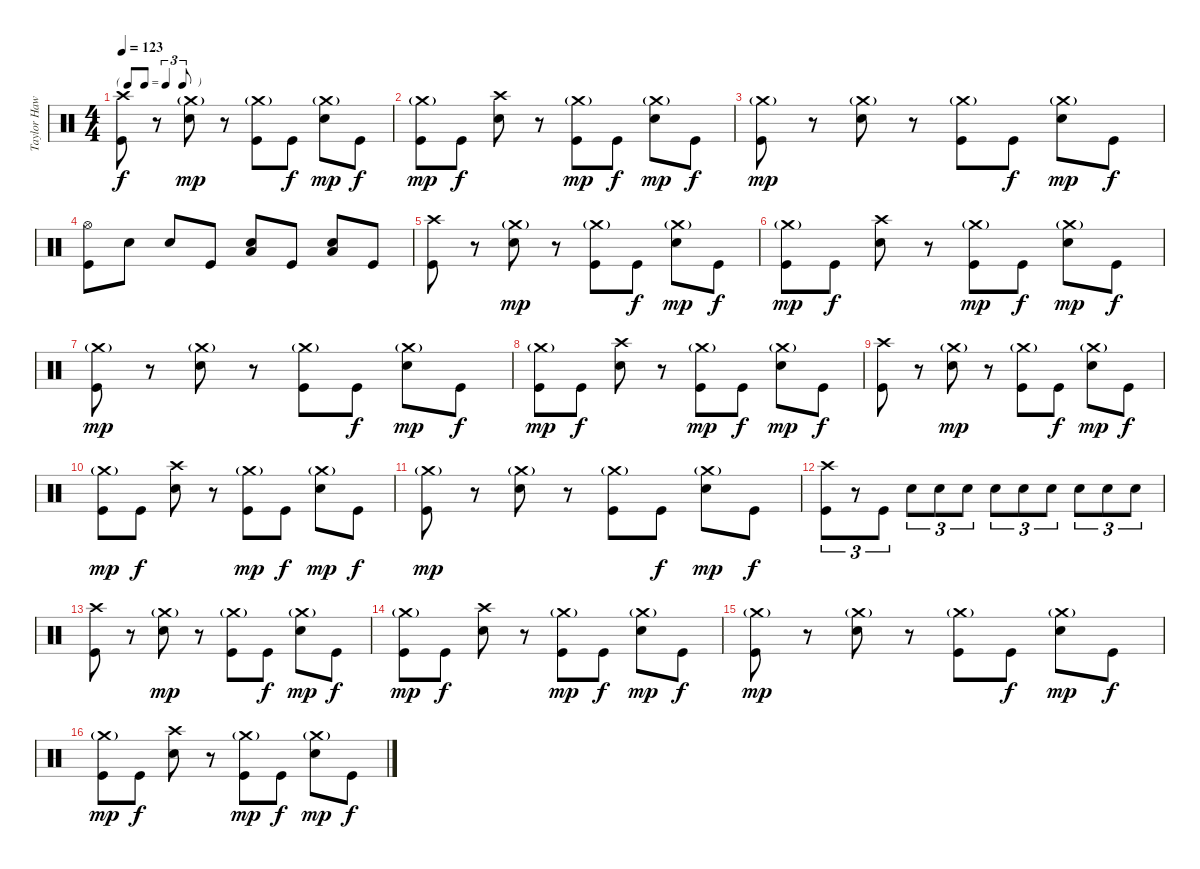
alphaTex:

\track ("Taylor Hawkins - Drums" "Taylor Haw") {instrument percussion}
\staff {score}
\articulation defaults
\ts (4 4)
\tf triplet8th
\tempo 123
\clef neutral
\ks c
("Crash high (hit)" "Kick (hit)").8{dy f} r.8 ("Crash medium (hit)"{g} "Electric Snare (hit)").8{dy mp} r.8 ("Crash medium (hit)"{g} "Kick (hit)").8 "Kick (hit)".8{dy f} ("Crash medium (hit)"{g} "Electric Snare (hit)").8{dy mp} "Kick (hit)".8{dy f} |
("Crash medium (hit)"{g} "Kick (hit)").8{dy mp} "Kick (hit)".8{dy f} ("Crash high (hit)" "Electric Snare (hit)").8 r.8 ("Crash medium (hit)"{g} "Kick (hit)").8{dy mp} "Kick (hit)".8{dy f} ("Crash medium (hit)"{g} "Electric Snare (hit)").8{dy mp} "Kick (hit)".8{dy f} |
("Crash medium (hit)"{g} "Kick (hit)").8{dy mp} r.8 ("Crash medium (hit)"{g} "Electric Snare (hit)").8 r.8 ("Crash medium (hit)"{g} "Kick (hit)").8 "Kick (hit)".8{dy f} ("Crash medium (hit)"{g} "Electric Snare (hit)").8{dy mp} "Kick (hit)".8{dy f} |
("Hi-Hat (open)" "Kick (hit)").8 "Electric Snare (hit)".8 "Electric Snare (hit)".8 "Kick (hit)".8 ("Electric Snare (hit)" "Low Tom (hit)").8 "Kick (hit)".8 ("Electric Snare (hit)" "Low Floor Tom (hit)").8 "Kick (hit)".8 |
("Crash high (hit)" "Kick (hit)").8 r.8 ("Crash medium (hit)"{g} "Electric Snare (hit)").8{dy mp} r.8 ("Crash medium (hit)"{g} "Kick (hit)").8 "Kick (hit)".8{dy f} ("Crash medium (hit)"{g} "Electric Snare (hit)").8{dy mp} "Kick (hit)".8{dy f} |
("Crash medium (hit)"{g} "Kick (hit)").8{dy mp} "Kick (hit)".8{dy f} ("Crash high (hit)" "Electric Snare (hit)").8 r.8 ("Crash medium (hit)"{g} "Kick (hit)").8{dy mp} "Kick (hit)".8{dy f} ("Crash medium (hit)"{g} "Electric Snare (hit)").8{dy mp} "Kick (hit)".8{dy f} |
("Crash medium (hit)"{g} "Kick (hit)").8{dy mp} r.8 ("Crash medium (hit)"{g} "Electric Snare (hit)").8 r.8 ("Crash medium (hit)"{g} "Kick (hit)").8 "Kick (hit)".8{dy f} ("Crash medium (hit)"{g} "Electric Snare (hit)").8{dy mp} "Kick (hit)".8{dy f} |
("Crash medium (hit)"{g} "Kick (hit)").8{dy mp} "Kick (hit)".8{dy f} ("Crash high (hit)" "Electric Snare (hit)").8 r.8 ("Crash medium (hit)"{g} "Kick (hit)").8{dy mp} "Kick (hit)".8{dy f} ("Crash medium (hit)"{g} "Electric Snare (hit)").8{dy mp} "Kick (hit)".8{dy f} |
("Crash high (hit)" "Kick (hit)").8 r.8 ("Crash medium (hit)"{g} "Electric Snare (hit)").8{dy mp} r.8 ("Crash medium (hit)"{g} "Kick (hit)").8 "Kick (hit)".8{dy f} ("Crash medium (hit)"{g} "Electric Snare (hit)").8{dy mp} "Kick (hit)".8{dy f} |
("Crash medium (hit)"{g} "Kick (hit)").8{dy mp} "Kick (hit)".8{dy f} ("Crash high (hit)" "Electric Snare (hit)").8 r.8 ("Crash medium (hit)"{g} "Kick (hit)").8{dy mp} "Kick (hit)".8{dy f} ("Crash medium (hit)"{g} "Electric Snare (hit)").8{dy mp} "Kick (hit)".8{dy f} |
("Crash medium (hit)"{g} "Kick (hit)").8{dy mp} r.8 ("Crash medium (hit)"{g} "Electric Snare (hit)").8 r.8 ("Crash medium (hit)"{g} "Kick (hit)").8 "Kick (hit)".8{dy f} ("Crash medium (hit)"{g} "Electric Snare (hit)").8{dy mp} "Kick (hit)".8{dy f} |
("Crash high (hit)" "Kick (hit)").8{tu (3 2)} r.8{tu (3 2)} "Kick (hit)".8{tu (3 2)} "Electric Snare (hit)".8{tu (3 2)} "Electric Snare (hit)".8{tu (3 2)} "Electric Snare (hit)".8{tu (3 2)} "Electric Snare (hit)".8{tu (3 2)} "Electric Snare (hit)".8{tu (3 2)} "Electric Snare (hit)".8{tu (3 2)} "Electric Snare (hit)".8{tu (3 2)} "Electric Snare (hit)".8{tu (3 2)} "Electric Snare (hit)".8{tu (3 2)} |
("Crash high (hit)" "Kick (hit)").8 r.8 ("Crash medium (hit)"{g} "Electric Snare (hit)").8{dy mp} r.8 ("Crash medium (hit)"{g} "Kick (hit)").8 "Kick (hit)".8{dy f} ("Crash medium (hit)"{g} "Electric Snare (hit)").8{dy mp} "Kick (hit)".8{dy f} |
("Crash medium (hit)"{g} "Kick (hit)").8{dy mp} "Kick (hit)".8{dy f} ("Crash high (hit)" "Electric Snare (hit)").8 r.8 ("Crash medium (hit)"{g} "Kick (hit)").8{dy mp} "Kick (hit)".8{dy f} ("Crash medium (hit)"{g} "Electric Snare (hit)").8{dy mp} "Kick (hit)".8{dy f} |
("Crash medium (hit)"{g} "Kick (hit)").8{dy mp} r.8 ("Crash medium (hit)"{g} "Electric Snare (hit)").8 r.8 ("Crash medium (hit)"{g} "Kick (hit)").8 "Kick (hit)".8{dy f} ("Crash medium (hit)"{g} "Electric Snare (hit)").8{dy mp} "Kick (hit)".8{dy f} |
("Crash medium (hit)"{g} "Kick (hit)").8{dy mp} "Kick (hit)".8{dy f} ("Crash high (hit)" "Electric Snare (hit)").8 r.8 ("Crash medium (hit)"{g} "Kick (hit)").8{dy mp} "Kick (hit)".8{dy f} ("Crash medium (hit)"{g} "Electric Snare (hit)").8{dy mp} "Kick (hit)".8{dy f}
